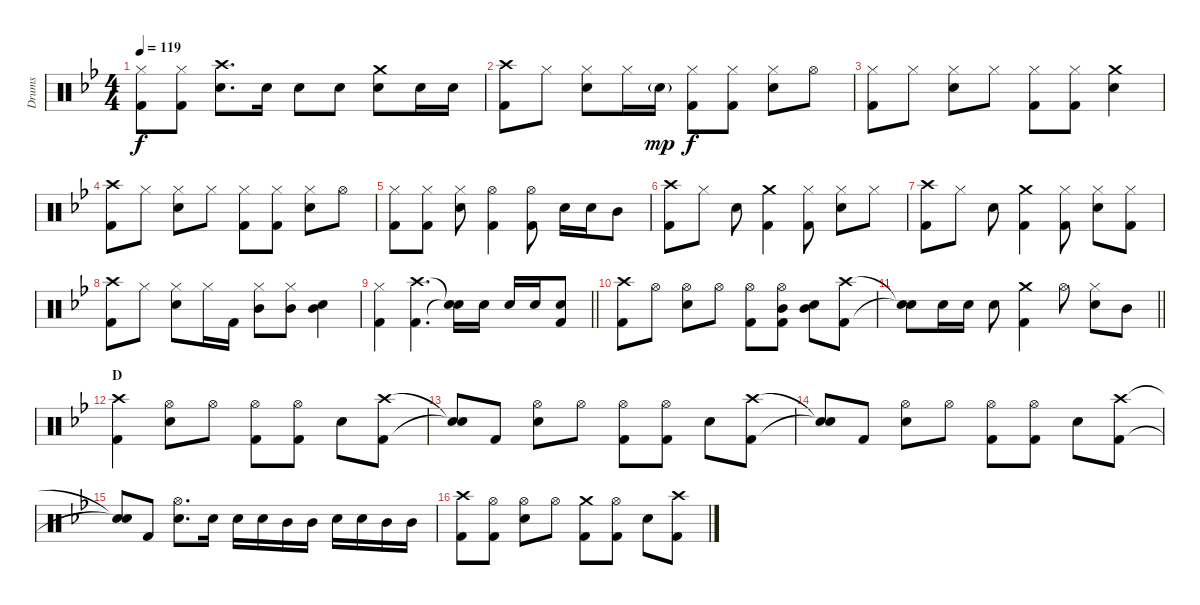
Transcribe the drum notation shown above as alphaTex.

\track ("Drums" "Drums") {instrument percussion}
\staff {score}
\articulation defaults
\ts (4 4)
\tempo 119
\clef neutral
\ks bb
("Hi-Hat (closed)" "Kick (hit) 2").8{dy f} ("Hi-Hat (closed)" "Kick (hit) 2").8 ("Crash high (hit)" "Snare (hit) 2").8{d} "Snare (hit) 2".16 "Snare (hit) 2".8 "Snare (hit) 2".8 ("Crash medium (hit)" "Snare (hit) 2").8 "Snare (hit) 2".16 "Snare (hit) 2".16 |
("Crash high (hit)" "Kick (hit) 2").8 "Hi-Hat (closed)".8 ("Hi-Hat (closed)" "Snare (hit) 2").8 "Hi-Hat (closed)".16 "Snare (hit) 2"{g}.16{dy mp} ("Hi-Hat (closed)" "Kick (hit) 2").8{dy f} ("Hi-Hat (closed)" "Kick (hit) 2").8 ("Hi-Hat (closed)" "Snare (hit) 2").8 "Hi-Hat (open)".8 |
("Hi-Hat (closed)" "Kick (hit) 2").8 "Hi-Hat (closed)".8 ("Hi-Hat (closed)" "Snare (hit) 2").8 "Hi-Hat (closed)".8 ("Hi-Hat (closed)" "Kick (hit) 2").8 ("Hi-Hat (closed)" "Kick (hit) 2").8 ("Crash medium (hit)" "Snare (hit) 2").4 |
("Crash high (hit)" "Kick (hit) 2").8 "Hi-Hat (closed)".8 ("Hi-Hat (closed)" "Snare (hit) 2").8 "Hi-Hat (closed)".8 ("Hi-Hat (closed)" "Kick (hit) 2").8 ("Hi-Hat (closed)" "Kick (hit) 2").8 ("Hi-Hat (closed)" "Snare (hit) 2").8 "Hi-Hat (open)".8 |
("Hi-Hat (closed)" "Kick (hit) 2").8 ("Hi-Hat (closed)" "Kick (hit) 2").8 ("Hi-Hat (closed)" "Snare (hit) 2").8 ("Hi-Hat (open)" "Kick (hit) 2").4 ("Hi-Hat (open)" "Kick (hit) 2").8 "Snare (hit) 2".16 "Snare (hit) 2".16 "Mid Tom (hit)".8 |
("Crash high (hit)" "Kick (hit) 2").8 "Hi-Hat (closed)".8 "Snare (hit) 2".8 ("Crash medium (hit)" "Kick (hit) 2").4 ("Hi-Hat (closed)" "Kick (hit) 2").8 ("Hi-Hat (closed)" "Snare (hit) 2").8 "Hi-Hat (closed)".8 |
("Crash high (hit)" "Kick (hit) 2").8 "Hi-Hat (closed)".8 "Snare (hit) 2".8 ("Crash medium (hit)" "Kick (hit) 2").4 ("Hi-Hat (closed)" "Kick (hit) 2").8 ("Hi-Hat (closed)" "Snare (hit) 2").8 ("Hi-Hat (closed)" "Kick (hit) 2").8 |
("Crash high (hit)" "Kick (hit) 2").8 "Hi-Hat (closed)".8 ("Hi-Hat (closed)" "Snare (hit) 2").8 "Hi-Hat (closed)".16 "Kick (hit) 2".16 ("Mid Tom (hit)" "Hi-Hat (closed)").8 ("Mid Tom (hit)" "Hi-Hat (closed)").8 ("Mid Tom (hit)" "Snare (hit) 2").4 |
\barLineRight lightlight
("Hi-Hat (closed)" "Kick (hit) 2").4 ("Crash high (hit)" "Kick (hit) 2").4{d} ("Snare (hit)"{t} "Snare (hit)"{t}).16 "Snare (hit) 2".16 "Snare (hit) 2".16 "Snare (hit) 2".16 ("Snare (hit) 2" "Kick (hit) 2").8 |
("Crash high (hit)" "Kick (hit) 2").8 "Hi-Hat (open)".8 ("Hi-Hat (open)" "Snare (hit) 2").8 "Hi-Hat (open)".8 ("Hi-Hat (open)" "Kick (hit) 2").8 ("Mid Tom (hit)" "Hi-Hat (open)" "Kick (hit) 2").8 ("Mid Tom (hit)" "Snare (hit) 2").8 ("Crash high (hit)" "Kick (hit) 2").8 |
\barLineRight lightlight
("Snare (hit)"{t} "Snare (hit)"{t}).8 "Snare (hit) 2".16 "Snare (hit) 2".16 "Snare (hit) 2".8 ("Crash medium (hit)" "Kick (hit) 2").4 "Hi-Hat (open)".8 ("Hi-Hat (closed)" "Snare (hit) 2").8 "Mid Tom (hit)".8 |
\section ("" "D")
("Crash high (hit)" "Kick (hit) 2").4 ("Hi-Hat (open)" "Snare (hit) 2").8 "Hi-Hat (open)".8 ("Hi-Hat (open)" "Kick (hit) 2").8 ("Hi-Hat (open)" "Kick (hit) 2").8 "Snare (hit) 2".8 ("Crash high (hit)" "Kick (hit) 2").8 |
("Snare (hit)"{t} "Snare (hit)"{t}).8 "Kick (hit) 2".8 ("Hi-Hat (open)" "Snare (hit) 2").8 "Hi-Hat (open)".8 ("Hi-Hat (open)" "Kick (hit) 2").8 ("Hi-Hat (open)" "Kick (hit) 2").8 "Snare (hit) 2".8 ("Crash high (hit)" "Kick (hit) 2").8 |
("Snare (hit)"{t} "Snare (hit)"{t}).8 "Kick (hit) 2".8 ("Hi-Hat (open)" "Snare (hit) 2").8 "Hi-Hat (open)".8 ("Hi-Hat (open)" "Kick (hit) 2").8 ("Hi-Hat (open)" "Kick (hit) 2").8 "Snare (hit) 2".8 ("Crash high (hit)" "Kick (hit) 2").8 |
("Snare (hit)"{t} "Snare (hit)"{t}).8 "Kick (hit) 2".8 ("Hi-Hat (open)" "Snare (hit) 2").8{d} "Snare (hit) 2".16 "Snare (hit) 2".16 "Snare (hit) 2".16 "Mid Tom (hit)".16 "Mid Tom (hit)".16 "Snare (hit) 2".16 "Snare (hit) 2".16 "Mid Tom (hit)".16 "Mid Tom (hit)".16 |
("Crash high (hit)" "Kick (hit) 2").8 ("Hi-Hat (open)" "Kick (hit) 2").8 ("Hi-Hat (open)" "Snare (hit) 2").8 "Hi-Hat (open)".8 ("Crash medium (hit)" "Kick (hit) 2").8 ("Hi-Hat (open)" "Kick (hit) 2").8 "Snare (hit) 2".8 ("Crash high (hit)" "Kick (hit) 2").8
